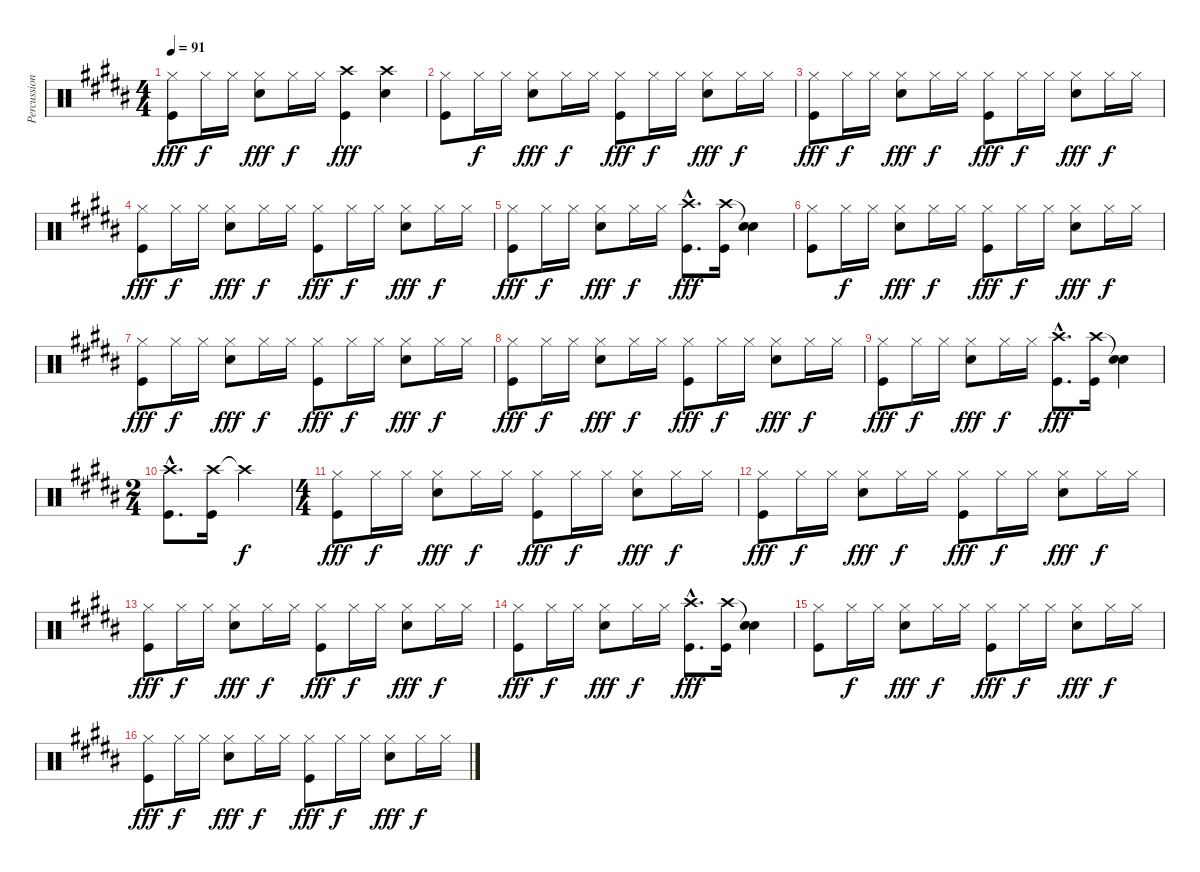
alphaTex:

\track ("Percussion" "Percussion") {instrument percussion}
\staff {score}
\articulation defaults
\ts (4 4)
\tempo 91
\clef neutral
\ks b
("Hi-Hat (closed)" "Kick (hit)").8{dy fff} "Hi-Hat (closed)".16{dy f} "Hi-Hat (closed)".16 ("Hi-Hat (closed)" "Electric Snare (hit)").8{dy fff} "Hi-Hat (closed)".16{dy f} "Hi-Hat (closed)".16 ("Crash high (hit)" "Kick (hit)").4{dy fff} ("Crash high (hit)" "Electric Snare (hit)").4 |
("Hi-Hat (closed)" "Kick (hit)").8 "Hi-Hat (closed)".16{dy f} "Hi-Hat (closed)".16 ("Hi-Hat (closed)" "Electric Snare (hit)").8{dy fff} "Hi-Hat (closed)".16{dy f} "Hi-Hat (closed)".16 ("Hi-Hat (closed)" "Kick (hit)").8{dy fff} "Hi-Hat (closed)".16{dy f} "Hi-Hat (closed)".16 ("Hi-Hat (closed)" "Electric Snare (hit)").8{dy fff} "Hi-Hat (closed)".16{dy f} "Hi-Hat (closed)".16 |
("Hi-Hat (closed)" "Kick (hit)").8{dy fff} "Hi-Hat (closed)".16{dy f} "Hi-Hat (closed)".16 ("Hi-Hat (closed)" "Electric Snare (hit)").8{dy fff} "Hi-Hat (closed)".16{dy f} "Hi-Hat (closed)".16 ("Hi-Hat (closed)" "Kick (hit)").8{dy fff} "Hi-Hat (closed)".16{dy f} "Hi-Hat (closed)".16 ("Hi-Hat (closed)" "Electric Snare (hit)").8{dy fff} "Hi-Hat (closed)".16{dy f} "Hi-Hat (closed)".16 |
("Hi-Hat (closed)" "Kick (hit)").8{dy fff} "Hi-Hat (closed)".16{dy f} "Hi-Hat (closed)".16 ("Hi-Hat (closed)" "Electric Snare (hit)").8{dy fff} "Hi-Hat (closed)".16{dy f} "Hi-Hat (closed)".16 ("Hi-Hat (closed)" "Kick (hit)").8{dy fff} "Hi-Hat (closed)".16{dy f} "Hi-Hat (closed)".16 ("Hi-Hat (closed)" "Electric Snare (hit)").8{dy fff} "Hi-Hat (closed)".16{dy f} "Hi-Hat (closed)".16 |
("Hi-Hat (closed)" "Kick (hit)").8{dy fff} "Hi-Hat (closed)".16{dy f} "Hi-Hat (closed)".16 ("Hi-Hat (closed)" "Electric Snare (hit)").8{dy fff} "Hi-Hat (closed)".16{dy f} "Hi-Hat (closed)".16 ("Crash high (hit)"{hac} "Kick (hit)"{hac}).8{d dy fff} ("Crash high (hit)" "Kick (hit)").16 ("Snare (hit)"{t} "Electric Snare (hit)").4 |
("Hi-Hat (closed)" "Kick (hit)").8 "Hi-Hat (closed)".16{dy f} "Hi-Hat (closed)".16 ("Hi-Hat (closed)" "Electric Snare (hit)").8{dy fff} "Hi-Hat (closed)".16{dy f} "Hi-Hat (closed)".16 ("Hi-Hat (closed)" "Kick (hit)").8{dy fff} "Hi-Hat (closed)".16{dy f} "Hi-Hat (closed)".16 ("Hi-Hat (closed)" "Electric Snare (hit)").8{dy fff} "Hi-Hat (closed)".16{dy f} "Hi-Hat (closed)".16 |
("Hi-Hat (closed)" "Kick (hit)").8{dy fff} "Hi-Hat (closed)".16{dy f} "Hi-Hat (closed)".16 ("Hi-Hat (closed)" "Electric Snare (hit)").8{dy fff} "Hi-Hat (closed)".16{dy f} "Hi-Hat (closed)".16 ("Hi-Hat (closed)" "Kick (hit)").8{dy fff} "Hi-Hat (closed)".16{dy f} "Hi-Hat (closed)".16 ("Hi-Hat (closed)" "Electric Snare (hit)").8{dy fff} "Hi-Hat (closed)".16{dy f} "Hi-Hat (closed)".16 |
("Hi-Hat (closed)" "Kick (hit)").8{dy fff} "Hi-Hat (closed)".16{dy f} "Hi-Hat (closed)".16 ("Hi-Hat (closed)" "Electric Snare (hit)").8{dy fff} "Hi-Hat (closed)".16{dy f} "Hi-Hat (closed)".16 ("Hi-Hat (closed)" "Kick (hit)").8{dy fff} "Hi-Hat (closed)".16{dy f} "Hi-Hat (closed)".16 ("Hi-Hat (closed)" "Electric Snare (hit)").8{dy fff} "Hi-Hat (closed)".16{dy f} "Hi-Hat (closed)".16 |
("Hi-Hat (closed)" "Kick (hit)").8{dy fff} "Hi-Hat (closed)".16{dy f} "Hi-Hat (closed)".16 ("Hi-Hat (closed)" "Electric Snare (hit)").8{dy fff} "Hi-Hat (closed)".16{dy f} "Hi-Hat (closed)".16 ("Crash high (hit)"{hac} "Kick (hit)"{hac}).8{d dy fff} ("Crash high (hit)" "Kick (hit)").16 ("Snare (hit)"{t} "Electric Snare (hit)").4 |
\ts (2 4)
("Crash high (hit)"{hac} "Kick (hit)"{hac}).8{d} ("Crash high (hit)" "Kick (hit)").16 "Crash high (hit)"{t}.4{dy f} |
\ts (4 4)
("Hi-Hat (closed)" "Kick (hit)").8{dy fff} "Hi-Hat (closed)".16{dy f} "Hi-Hat (closed)".16 ("Hi-Hat (closed)" "Electric Snare (hit)").8{dy fff} "Hi-Hat (closed)".16{dy f} "Hi-Hat (closed)".16 ("Hi-Hat (closed)" "Kick (hit)").8{dy fff} "Hi-Hat (closed)".16{dy f} "Hi-Hat (closed)".16 ("Hi-Hat (closed)" "Electric Snare (hit)").8{dy fff} "Hi-Hat (closed)".16{dy f} "Hi-Hat (closed)".16 |
("Hi-Hat (closed)" "Kick (hit)").8{dy fff} "Hi-Hat (closed)".16{dy f} "Hi-Hat (closed)".16 ("Hi-Hat (closed)" "Electric Snare (hit)").8{dy fff} "Hi-Hat (closed)".16{dy f} "Hi-Hat (closed)".16 ("Hi-Hat (closed)" "Kick (hit)").8{dy fff} "Hi-Hat (closed)".16{dy f} "Hi-Hat (closed)".16 ("Hi-Hat (closed)" "Electric Snare (hit)").8{dy fff} "Hi-Hat (closed)".16{dy f} "Hi-Hat (closed)".16 |
("Hi-Hat (closed)" "Kick (hit)").8{dy fff} "Hi-Hat (closed)".16{dy f} "Hi-Hat (closed)".16 ("Hi-Hat (closed)" "Electric Snare (hit)").8{dy fff} "Hi-Hat (closed)".16{dy f} "Hi-Hat (closed)".16 ("Hi-Hat (closed)" "Kick (hit)").8{dy fff} "Hi-Hat (closed)".16{dy f} "Hi-Hat (closed)".16 ("Hi-Hat (closed)" "Electric Snare (hit)").8{dy fff} "Hi-Hat (closed)".16{dy f} "Hi-Hat (closed)".16 |
("Hi-Hat (closed)" "Kick (hit)").8{dy fff} "Hi-Hat (closed)".16{dy f} "Hi-Hat (closed)".16 ("Hi-Hat (closed)" "Electric Snare (hit)").8{dy fff} "Hi-Hat (closed)".16{dy f} "Hi-Hat (closed)".16 ("Crash high (hit)"{hac} "Kick (hit)"{hac}).8{d dy fff} ("Crash high (hit)" "Kick (hit)").16 ("Snare (hit)"{t} "Electric Snare (hit)").4 |
("Hi-Hat (closed)" "Kick (hit)").8 "Hi-Hat (closed)".16{dy f} "Hi-Hat (closed)".16 ("Hi-Hat (closed)" "Electric Snare (hit)").8{dy fff} "Hi-Hat (closed)".16{dy f} "Hi-Hat (closed)".16 ("Hi-Hat (closed)" "Kick (hit)").8{dy fff} "Hi-Hat (closed)".16{dy f} "Hi-Hat (closed)".16 ("Hi-Hat (closed)" "Electric Snare (hit)").8{dy fff} "Hi-Hat (closed)".16{dy f} "Hi-Hat (closed)".16 |
("Hi-Hat (closed)" "Kick (hit)").8{dy fff} "Hi-Hat (closed)".16{dy f} "Hi-Hat (closed)".16 ("Hi-Hat (closed)" "Electric Snare (hit)").8{dy fff} "Hi-Hat (closed)".16{dy f} "Hi-Hat (closed)".16 ("Hi-Hat (closed)" "Kick (hit)").8{dy fff} "Hi-Hat (closed)".16{dy f} "Hi-Hat (closed)".16 ("Hi-Hat (closed)" "Electric Snare (hit)").8{dy fff} "Hi-Hat (closed)".16{dy f} "Hi-Hat (closed)".16
